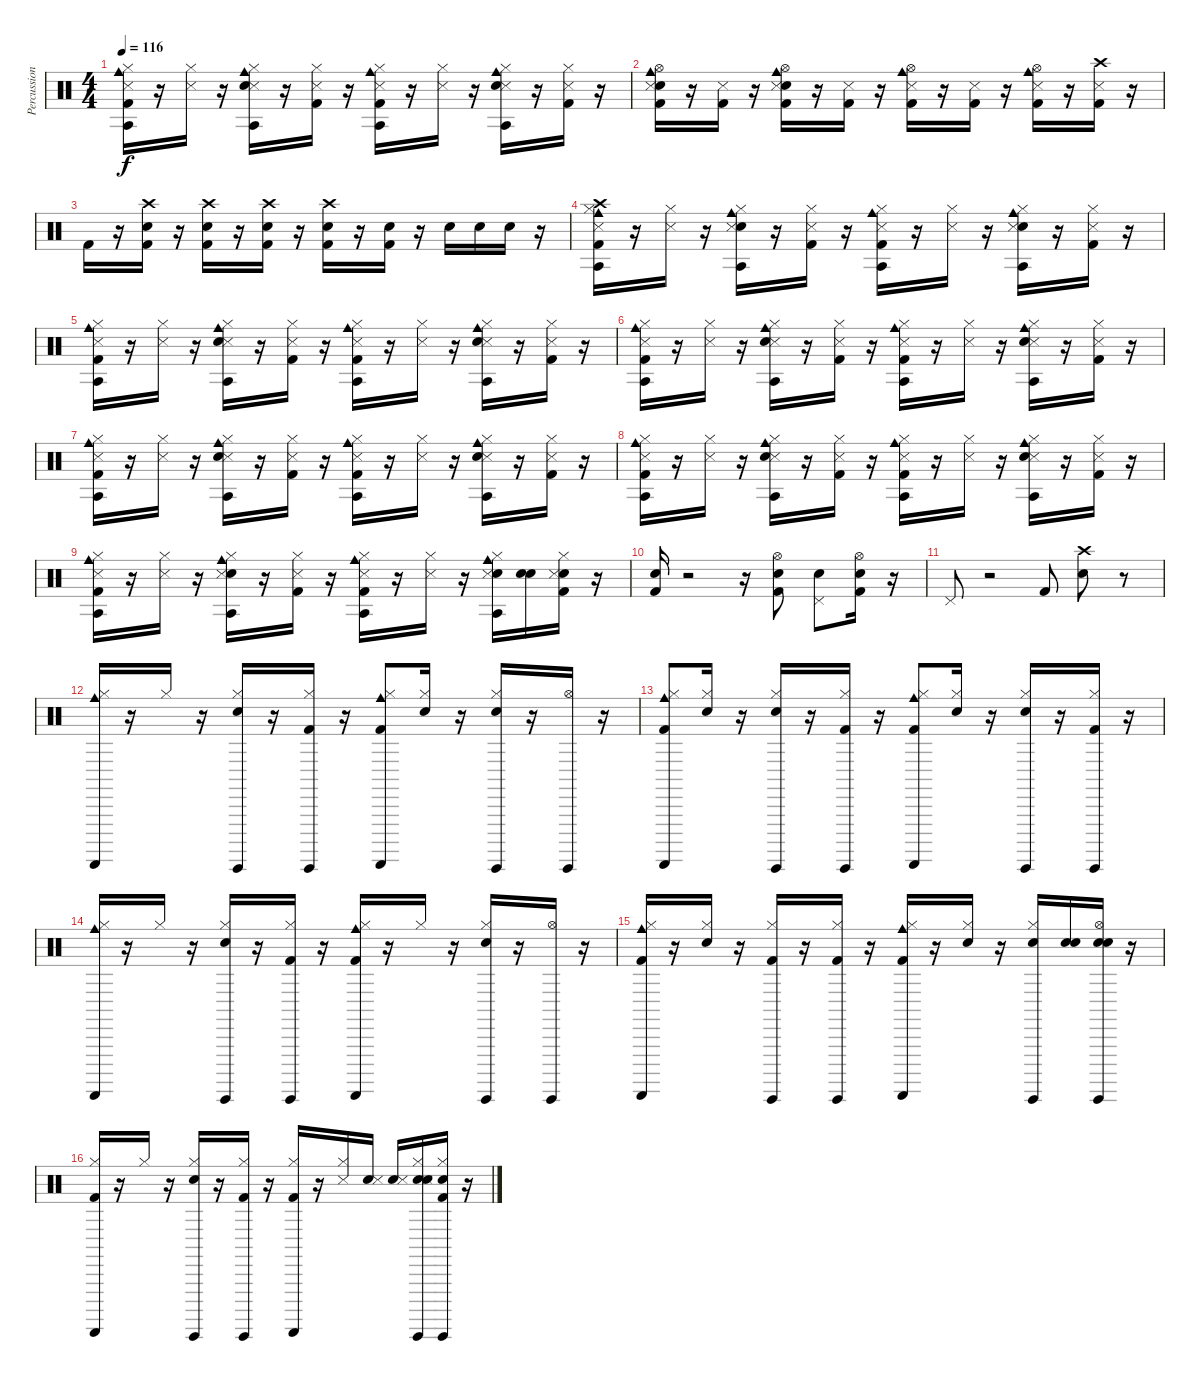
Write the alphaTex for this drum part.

\track ("Percussion" "Percussion") {instrument percussion}
\staff {score}
\articulation defaults
\ts (4 4)
\tempo 116
\clef neutral
\ks c
("Cowbell medium (hit)" "Snare (side stick) 3" "Agogo tow (hit)" "Kick (hit) 2" "Hi-Hat (closed)").16{dy f} r.16 ("Snare (side stick) 3" "Hi-Hat (closed)").16 r.16 ("Cowbell medium (hit)" "Snare (side stick) 3" "Agogo tow (hit)" "Snare (hit) 2" "Hi-Hat (closed)").16 r.16 ("Snare (side stick) 3" "Kick (hit) 2" "Hi-Hat (closed)").16 r.16 ("Cowbell medium (hit)" "Snare (side stick) 3" "Agogo tow (hit)" "Kick (hit) 2" "Hi-Hat (closed)").16 r.16 ("Snare (side stick) 3" "Hi-Hat (closed)").16 r.16 ("Cowbell medium (hit)" "Snare (side stick) 3" "Agogo tow (hit)" "Snare (hit) 2" "Hi-Hat (closed)").16 r.16 ("Snare (side stick) 3" "Kick (hit) 2" "Hi-Hat (closed)").16 r.16 |
("Electric Snare (hit)" "Snare (side stick) 3" "Cowbell medium (hit)" "Hi-Hat (open)" "Kick (hit) 2").16 r.16 ("Snare (side stick) 3" "Kick (hit) 2").16 r.16 ("Electric Snare (hit)" "Snare (side stick) 3" "Cowbell medium (hit)" "Hi-Hat (open)" "Kick (hit) 2").16 r.16 ("Snare (side stick) 3" "Kick (hit) 2").16 r.16 ("Snare (side stick) 3" "Cowbell medium (hit)" "Hi-Hat (open)" "Kick (hit) 2").16 r.16 ("Snare (side stick) 3" "Kick (hit) 2").16 r.16 ("Snare (side stick) 3" "Cowbell medium (hit)" "Hi-Hat (open)" "Kick (hit) 2").16 r.16 ("Crash high (hit)" "Snare (side stick) 3" "Kick (hit) 2").16 r.16 |
"Kick (hit) 2".16 r.16 ("Crash high (hit)" "Snare (hit) 2" "Kick (hit) 2").16 r.16 ("Snare (hit) 2" "Crash high (hit)" "Kick (hit) 2").16 r.16 ("Snare (hit) 2" "Kick (hit) 2" "Crash high (hit)").16 r.16 ("Snare (hit) 2" "Crash high (hit)" "Kick (hit) 2").16 r.16 ("Snare (hit) 2" "Kick (hit) 2").16 r.16 "Snare (hit) 2".16 "Snare (hit) 2".16 "Snare (hit) 2".16 r.16 |
("Kick (hit) 2" "Hi-Hat (closed)" "Agogo tow (hit)" "Crash high (hit)" "Cowbell medium (hit)" "Snare (side stick) 3").16 r.16 ("Hi-Hat (closed)" "Snare (side stick) 3").16 r.16 ("Snare (hit) 2" "Hi-Hat (closed)" "Agogo tow (hit)" "Cowbell medium (hit)" "Snare (side stick) 3").16 r.16 ("Kick (hit) 2" "Hi-Hat (closed)" "Snare (side stick) 3").16 r.16 ("Kick (hit) 2" "Hi-Hat (closed)" "Agogo tow (hit)" "Cowbell medium (hit)" "Snare (side stick) 3").16 r.16 ("Hi-Hat (closed)" "Snare (side stick) 3").16 r.16 ("Snare (hit) 2" "Hi-Hat (closed)" "Agogo tow (hit)" "Cowbell medium (hit)" "Snare (side stick) 3").16 r.16 ("Kick (hit) 2" "Hi-Hat (closed)" "Snare (side stick) 3").16 r.16 |
("Cowbell medium (hit)" "Snare (side stick) 3" "Hi-Hat (closed)" "Agogo tow (hit)" "Kick (hit) 2").16 r.16 ("Snare (side stick) 3" "Hi-Hat (closed)").16 r.16 ("Cowbell medium (hit)" "Snare (side stick) 3" "Hi-Hat (closed)" "Agogo tow (hit)" "Snare (hit) 2").16 r.16 ("Snare (side stick) 3" "Hi-Hat (closed)" "Kick (hit) 2").16 r.16 ("Cowbell medium (hit)" "Snare (side stick) 3" "Hi-Hat (closed)" "Agogo tow (hit)" "Kick (hit) 2").16 r.16 ("Snare (side stick) 3" "Hi-Hat (closed)").16 r.16 ("Cowbell medium (hit)" "Snare (side stick) 3" "Hi-Hat (closed)" "Agogo tow (hit)" "Snare (hit) 2").16 r.16 ("Snare (side stick) 3" "Hi-Hat (closed)" "Kick (hit) 2").16 r.16 |
("Snare (side stick) 3" "Agogo tow (hit)" "Kick (hit) 2" "Cowbell medium (hit)" "Hi-Hat (closed)").16 r.16 ("Snare (side stick) 3" "Hi-Hat (closed)").16 r.16 ("Snare (side stick) 3" "Agogo tow (hit)" "Snare (hit) 2" "Cowbell medium (hit)" "Hi-Hat (closed)").16 r.16 ("Snare (side stick) 3" "Kick (hit) 2" "Hi-Hat (closed)").16 r.16 ("Snare (side stick) 3" "Agogo tow (hit)" "Kick (hit) 2" "Cowbell medium (hit)" "Hi-Hat (closed)").16 r.16 ("Snare (side stick) 3" "Hi-Hat (closed)").16 r.16 ("Snare (side stick) 3" "Agogo tow (hit)" "Snare (hit) 2" "Cowbell medium (hit)" "Hi-Hat (closed)").16 r.16 ("Snare (side stick) 3" "Kick (hit) 2" "Hi-Hat (closed)").16 r.16 |
("Cowbell medium (hit)" "Agogo tow (hit)" "Snare (side stick) 3" "Kick (hit) 2" "Hi-Hat (closed)").16 r.16 ("Snare (side stick) 3" "Hi-Hat (closed)").16 r.16 ("Cowbell medium (hit)" "Agogo tow (hit)" "Snare (side stick) 3" "Snare (hit) 2" "Hi-Hat (closed)").16 r.16 ("Snare (side stick) 3" "Kick (hit) 2" "Hi-Hat (closed)").16 r.16 ("Cowbell medium (hit)" "Agogo tow (hit)" "Snare (side stick) 3" "Kick (hit) 2" "Hi-Hat (closed)").16 r.16 ("Snare (side stick) 3" "Hi-Hat (closed)").16 r.16 ("Cowbell medium (hit)" "Agogo tow (hit)" "Snare (side stick) 3" "Snare (hit) 2" "Hi-Hat (closed)").16 r.16 ("Snare (side stick) 3" "Kick (hit) 2" "Hi-Hat (closed)").16 r.16 |
("Hi-Hat (closed)" "Cowbell medium (hit)" "Snare (side stick) 3" "Agogo tow (hit)" "Kick (hit) 2").16 r.16 ("Hi-Hat (closed)" "Snare (side stick) 3").16 r.16 ("Hi-Hat (closed)" "Cowbell medium (hit)" "Snare (side stick) 3" "Agogo tow (hit)" "Snare (hit) 2").16 r.16 ("Hi-Hat (closed)" "Snare (side stick) 3" "Kick (hit) 2").16 r.16 ("Hi-Hat (closed)" "Cowbell medium (hit)" "Snare (side stick) 3" "Agogo tow (hit)" "Kick (hit) 2").16 r.16 ("Hi-Hat (closed)" "Snare (side stick) 3").16 r.16 ("Hi-Hat (closed)" "Cowbell medium (hit)" "Snare (side stick) 3" "Agogo tow (hit)" "Snare (hit) 2").16 r.16 ("Hi-Hat (closed)" "Snare (side stick) 3" "Kick (hit) 2").16 r.16 |
("Kick (hit) 2" "Agogo tow (hit)" "Cowbell medium (hit)" "Snare (side stick) 3" "Hi-Hat (closed)").16 r.16 ("Snare (side stick) 3" "Hi-Hat (closed)").16 r.16 ("Snare (hit) 2" "Agogo tow (hit)" "Cowbell medium (hit)" "Snare (side stick) 3" "Hi-Hat (closed)").16 r.16 ("Kick (hit) 2" "Snare (side stick) 3" "Hi-Hat (closed)").16 r.16 ("Kick (hit) 2" "Agogo tow (hit)" "Cowbell medium (hit)" "Snare (side stick) 3" "Hi-Hat (closed)").16 r.16 ("Snare (side stick) 3" "Hi-Hat (closed)").16 r.16 ("Snare (hit) 2" "Agogo tow (hit)" "Cowbell medium (hit)" "Snare (side stick) 3" "Hi-Hat (closed)").16 ("Snare (hit)" "Snare (hit) 2").16 ("Snare (hit) 2" "Kick (hit) 2" "Snare (side stick) 3" "Hi-Hat (closed)").16 r.16 |
("Kick (hit) 2" "Snare (hit) 2").16 r.2 r.16 ("Snare (hit) 2" "Kick (hit) 2" "Hi-Hat (open)").8 ("Snare (hit)" "Pedal Hi-Hat (hit)").8 ("Kick (hit) 2" "Snare (hit) 2" "Hi-Hat (open)").16 r.16 |
"Pedal Hi-Hat (hit)".8 r.2 "Kick (hit) 2".8 ("Snare (hit)" "Crash high (hit)").8 r.8 |
("Cowbell medium (hit)" "Guiro (scrap-return)" "Hi-Hat (closed)").16 r.16 "Hi-Hat (closed)".16 r.16 ("Guiro (hit)" "Snare (hit) 2" "Hi-Hat (closed)").16 r.16 ("Hi-Hat (closed)" "Kick (hit) 2" "Guiro (hit)").16 r.16 ("Guiro (scrap-return)" "Kick (hit) 2" "Hi-Hat (closed)" "Cowbell medium (hit)").8 ("Snare (hit)" "Hi-Hat (closed)").16 r.16 ("Guiro (hit)" "Snare (hit) 2" "Hi-Hat (closed)").16 r.16 ("Hi-Hat (open)" "Guiro (hit)").16 r.16 |
("Guiro (scrap-return)" "Kick (hit) 2" "Hi-Hat (closed)" "Cowbell medium (hit)").8 ("Snare (hit)" "Hi-Hat (closed)").16 r.16 ("Guiro (hit)" "Snare (hit) 2" "Hi-Hat (closed)").16 r.16 ("Hi-Hat (closed)" "Kick (hit) 2" "Guiro (hit)").16 r.16 ("Guiro (scrap-return)" "Kick (hit) 2" "Hi-Hat (closed)" "Cowbell medium (hit)").8 ("Snare (hit)" "Hi-Hat (closed)").16 r.16 ("Guiro (hit)" "Snare (hit) 2" "Hi-Hat (closed)").16 r.16 ("Guiro (hit)" "Hi-Hat (closed)" "Kick (hit) 2").16 r.16 |
("Guiro (scrap-return)" "Hi-Hat (closed)" "Cowbell medium (hit)").16 r.16 "Hi-Hat (closed)".16 r.16 ("Guiro (hit)" "Snare (hit) 2" "Hi-Hat (closed)").16 r.16 ("Hi-Hat (closed)" "Kick (hit) 2" "Guiro (hit)").16 r.16 ("Cowbell medium (hit)" "Guiro (scrap-return)" "Kick (hit) 2" "Hi-Hat (closed)").16 r.16 "Hi-Hat (closed)".16 r.16 ("Guiro (hit)" "Snare (hit) 2" "Hi-Hat (closed)").16 r.16 ("Hi-Hat (open)" "Guiro (hit)").16 r.16 |
("Kick (hit) 2" "Guiro (scrap-return)" "Hi-Hat (closed)" "Cowbell medium (hit)").16 r.16 ("Snare (hit) 2" "Hi-Hat (closed)").16 r.16 ("Kick (hit) 2" "Guiro (hit)" "Hi-Hat (closed)").16 r.16 ("Hi-Hat (closed)" "Kick (hit) 2" "Guiro (hit)").16 r.16 ("Cowbell medium (hit)" "Guiro (scrap-return)" "Kick (hit) 2" "Hi-Hat (closed)").16 r.16 ("Snare (hit) 2" "Hi-Hat (closed)").16 r.16 ("Electric Snare (hit)" "Guiro (hit)" "Hi-Hat (closed)").16 ("Snare (hit)" "Electric Snare (hit)").16 ("Snare (hit)" "Electric Snare (hit)" "Hi-Hat (open)" "Guiro (hit)").16 r.16 |
("Guiro (scrap-return)" "Hi-Hat (closed)" "Kick (hit) 2").16 r.16 "Hi-Hat (closed)".16 r.16 ("Guiro (hit)" "Hi-Hat (closed)" "Snare (hit) 2").16 r.16 ("Guiro (hit)" "Hi-Hat (closed)" "Kick (hit) 2").16 r.16 ("Guiro (scrap-return)" "Hi-Hat (closed)" "Kick (hit) 2").16 r.16 ("Hi-Hat (closed)" "Snare (side stick) 3").16 ("Snare (hit)" "Snare (side stick) 3").16 ("Snare (hit)" "Snare (side stick) 3").16 ("Snare (hit)" "Snare (side stick) 3" "Guiro (hit)" "Hi-Hat (closed)" "Snare (hit) 2").16 ("Snare (hit)" "Guiro (hit)" "Hi-Hat (closed)" "Kick (hit) 2").16 r.16
